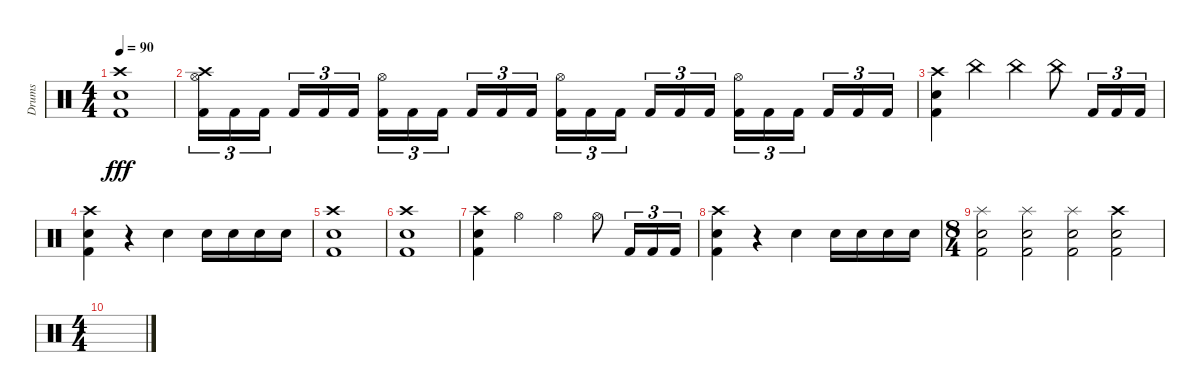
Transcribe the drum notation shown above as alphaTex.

\track ("Drums" "Drums") {instrument percussion}
\staff {score}
\articulation defaults
\ts (4 4)
\tempo 90
\clef neutral
\ks c
("Crash high (hit)" "Snare (hit) 2" "Kick (hit) 2").1{dy fff} |
("Crash high (hit)" "Hi-Hat (open)" "Kick (hit) 2").16{tu (3 2)} "Kick (hit) 2".16{tu (3 2)} "Kick (hit) 2".16{tu (3 2)} "Kick (hit) 2".16{tu (3 2)} "Kick (hit) 2".16{tu (3 2)} "Kick (hit) 2".16{tu (3 2)} ("Hi-Hat (open)" "Kick (hit) 2").16{tu (3 2)} "Kick (hit) 2".16{tu (3 2)} "Kick (hit) 2".16{tu (3 2)} "Kick (hit) 2".16{tu (3 2)} "Kick (hit) 2".16{tu (3 2)} "Kick (hit) 2".16{tu (3 2)} ("Hi-Hat (open)" "Kick (hit) 2").16{tu (3 2)} "Kick (hit) 2".16{tu (3 2)} "Kick (hit) 2".16{tu (3 2)} "Kick (hit) 2".16{tu (3 2)} "Kick (hit) 2".16{tu (3 2)} "Kick (hit) 2".16{tu (3 2)} ("Hi-Hat (open)" "Kick (hit) 2").16{tu (3 2)} "Kick (hit) 2".16{tu (3 2)} "Kick (hit) 2".16{tu (3 2)} "Kick (hit) 2".16{tu (3 2)} "Kick (hit) 2".16{tu (3 2)} "Kick (hit) 2".16{tu (3 2)} |
("Crash high (hit)" "Snare (hit) 2" "Kick (hit) 2").4 "China (hit)".4 "China (hit)".4 "China (hit)".8 "Kick (hit) 2".16{tu (3 2)} "Kick (hit) 2".16{tu (3 2)} "Kick (hit) 2".16{tu (3 2)} |
("Crash high (hit)" "Snare (hit) 2" "Kick (hit) 2").4 r.4 "Snare (hit) 2".4 "Snare (hit) 2".16 "Snare (hit) 2".16 "Snare (hit) 2".16 "Snare (hit) 2".16 |
("Crash high (hit)" "Snare (hit) 2" "Kick (hit) 2").1 |
("Crash high (hit)" "Snare (hit) 2" "Kick (hit) 2").1 |
("Crash high (hit)" "Snare (hit) 2" "Kick (hit) 2").4 "Hi-Hat (open)".4 "Hi-Hat (open)".4 "Hi-Hat (open)".8 "Kick (hit) 2".16{tu (3 2)} "Kick (hit) 2".16{tu (3 2)} "Kick (hit) 2".16{tu (3 2)} |
("Crash high (hit)" "Snare (hit) 2" "Kick (hit) 2").4 r.4 "Snare (hit) 2".4 "Snare (hit) 2".16 "Snare (hit) 2".16 "Snare (hit) 2".16 "Snare (hit) 2".16 |
\ts (8 4)
("Splash (hit)" "Snare (hit) 2" "Kick (hit) 2").2 ("Splash (hit)" "Snare (hit) 2" "Kick (hit) 2").2 ("Splash (hit)" "Snare (hit) 2" "Kick (hit) 2").2 ("Crash high (hit)" "Snare (hit) 2" "Kick (hit) 2").2 |
\ts (4 4)
